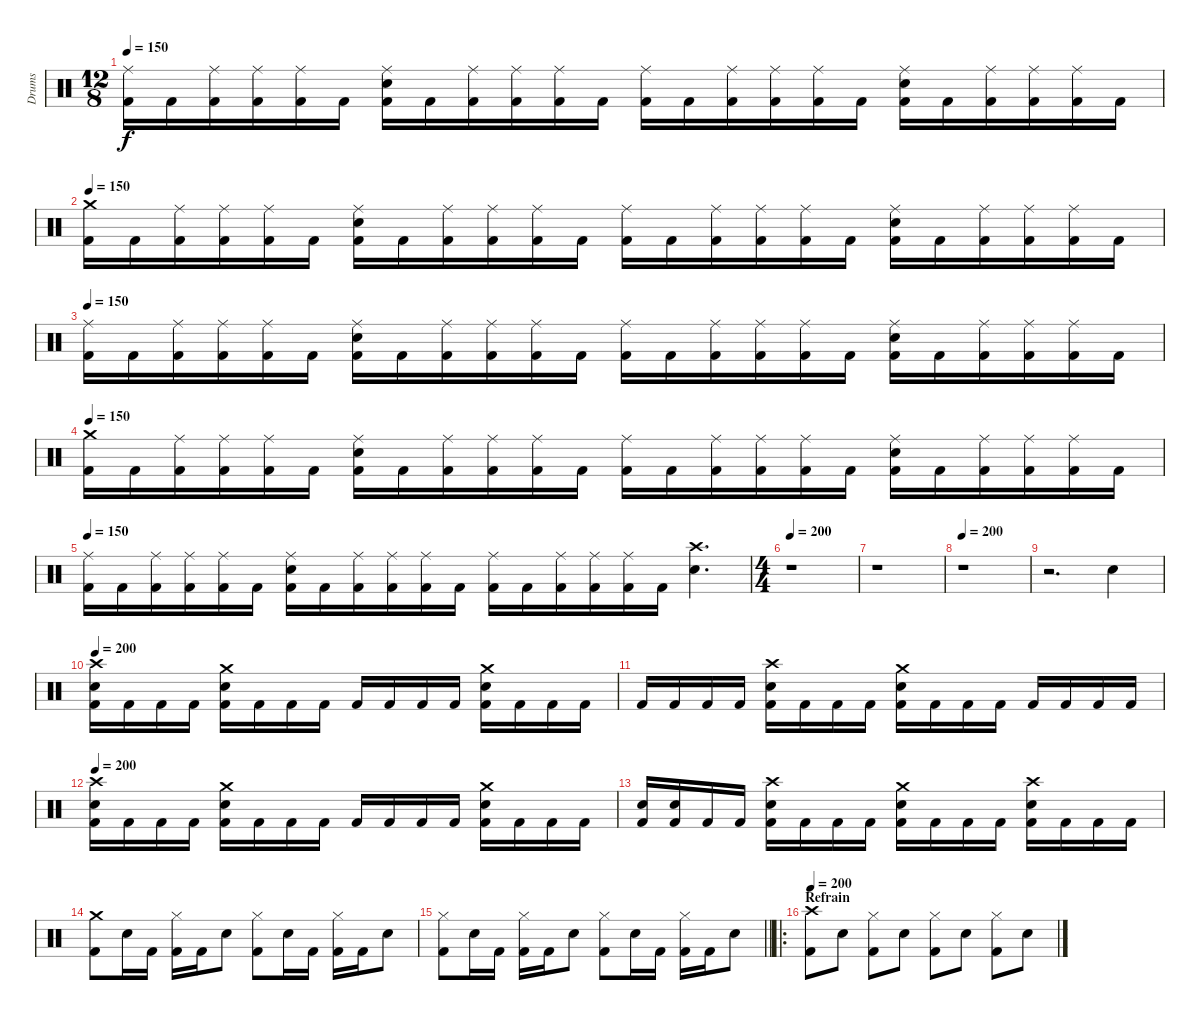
\track ("Drums" "Drums") {instrument percussion}
\staff {score}
\articulation defaults
\ts (12 8)
\tempo 150
\clef neutral
\ks c
("Ride (middle)" "Kick (hit) 2").16{dy f} "Kick (hit) 2".16 ("Ride (middle)" "Kick (hit) 2").16 ("Ride (middle)" "Kick (hit) 2").16 ("Ride (middle)" "Kick (hit) 2").16 "Kick (hit) 2".16 ("Ride (middle)" "Electric Snare (hit)" "Kick (hit) 2").16 "Kick (hit) 2".16 ("Ride (middle)" "Kick (hit) 2").16 ("Ride (middle)" "Kick (hit) 2").16 ("Ride (middle)" "Kick (hit) 2").16 "Kick (hit) 2".16 ("Ride (middle)" "Kick (hit) 2").16 "Kick (hit) 2".16 ("Ride (middle)" "Kick (hit) 2").16 ("Ride (middle)" "Kick (hit) 2").16 ("Ride (middle)" "Kick (hit) 2").16 "Kick (hit) 2".16 ("Ride (middle)" "Electric Snare (hit)" "Kick (hit) 2").16 "Kick (hit) 2".16 ("Ride (middle)" "Kick (hit) 2").16 ("Ride (middle)" "Kick (hit) 2").16 ("Ride (middle)" "Kick (hit) 2").16 "Kick (hit) 2".16 |
\tempo 150
("Crash medium (hit)" "Kick (hit) 2").16 "Kick (hit) 2".16 ("Ride (middle)" "Kick (hit) 2").16 ("Ride (middle)" "Kick (hit) 2").16 ("Ride (middle)" "Kick (hit) 2").16 "Kick (hit) 2".16 ("Ride (middle)" "Electric Snare (hit)" "Kick (hit) 2").16 "Kick (hit) 2".16 ("Ride (middle)" "Kick (hit) 2").16 ("Ride (middle)" "Kick (hit) 2").16 ("Ride (middle)" "Kick (hit) 2").16 "Kick (hit) 2".16 ("Ride (middle)" "Kick (hit) 2").16 "Kick (hit) 2".16 ("Ride (middle)" "Kick (hit) 2").16 ("Ride (middle)" "Kick (hit) 2").16 ("Ride (middle)" "Kick (hit) 2").16 "Kick (hit) 2".16 ("Ride (middle)" "Electric Snare (hit)" "Kick (hit) 2").16 "Kick (hit) 2".16 ("Ride (middle)" "Kick (hit) 2").16 ("Ride (middle)" "Kick (hit) 2").16 ("Ride (middle)" "Kick (hit) 2").16 "Kick (hit) 2".16 |
\tempo 150
("Ride (middle)" "Kick (hit) 2").16 "Kick (hit) 2".16 ("Ride (middle)" "Kick (hit) 2").16 ("Ride (middle)" "Kick (hit) 2").16 ("Ride (middle)" "Kick (hit) 2").16 "Kick (hit) 2".16 ("Ride (middle)" "Electric Snare (hit)" "Kick (hit) 2").16 "Kick (hit) 2".16 ("Ride (middle)" "Kick (hit) 2").16 ("Ride (middle)" "Kick (hit) 2").16 ("Ride (middle)" "Kick (hit) 2").16 "Kick (hit) 2".16 ("Ride (middle)" "Kick (hit) 2").16 "Kick (hit) 2".16 ("Ride (middle)" "Kick (hit) 2").16 ("Ride (middle)" "Kick (hit) 2").16 ("Ride (middle)" "Kick (hit) 2").16 "Kick (hit) 2".16 ("Ride (middle)" "Electric Snare (hit)" "Kick (hit) 2").16 "Kick (hit) 2".16 ("Ride (middle)" "Kick (hit) 2").16 ("Ride (middle)" "Kick (hit) 2").16 ("Ride (middle)" "Kick (hit) 2").16 "Kick (hit) 2".16 |
\tempo 150
("Crash medium (hit)" "Kick (hit) 2").16 "Kick (hit) 2".16 ("Ride (middle)" "Kick (hit) 2").16 ("Ride (middle)" "Kick (hit) 2").16 ("Ride (middle)" "Kick (hit) 2").16 "Kick (hit) 2".16 ("Ride (middle)" "Electric Snare (hit)" "Kick (hit) 2").16 "Kick (hit) 2".16 ("Ride (middle)" "Kick (hit) 2").16 ("Ride (middle)" "Kick (hit) 2").16 ("Ride (middle)" "Kick (hit) 2").16 "Kick (hit) 2".16 ("Ride (middle)" "Kick (hit) 2").16 "Kick (hit) 2".16 ("Ride (middle)" "Kick (hit) 2").16 ("Ride (middle)" "Kick (hit) 2").16 ("Ride (middle)" "Kick (hit) 2").16 "Kick (hit) 2".16 ("Ride (middle)" "Electric Snare (hit)" "Kick (hit) 2").16 "Kick (hit) 2".16 ("Ride (middle)" "Kick (hit) 2").16 ("Ride (middle)" "Kick (hit) 2").16 ("Ride (middle)" "Kick (hit) 2").16 "Kick (hit) 2".16 |
\tempo 150
("Ride (middle)" "Kick (hit) 2").16 "Kick (hit) 2".16 ("Ride (middle)" "Kick (hit) 2").16 ("Ride (middle)" "Kick (hit) 2").16 ("Ride (middle)" "Kick (hit) 2").16 "Kick (hit) 2".16 ("Ride (middle)" "Electric Snare (hit)" "Kick (hit) 2").16 "Kick (hit) 2".16 ("Ride (middle)" "Kick (hit) 2").16 ("Ride (middle)" "Kick (hit) 2").16 ("Ride (middle)" "Kick (hit) 2").16 "Kick (hit) 2".16 ("Ride (middle)" "Kick (hit) 2").16 "Kick (hit) 2".16 ("Ride (middle)" "Kick (hit) 2").16 ("Ride (middle)" "Kick (hit) 2").16 ("Ride (middle)" "Kick (hit) 2").16 "Kick (hit) 2".16 ("Crash high (hit)" "Electric Snare (hit)").4{d} |
\ts (4 4)
\tempo 200
r.1 |
r.1 |
\tempo 200
r.1 |
r.2{d} "Electric Snare (hit)".4 |
\tempo 200
("Crash high (hit)" "Electric Snare (hit)" "Kick (hit) 2").16 "Kick (hit) 2".16 "Kick (hit) 2".16 "Kick (hit) 2".16 ("Crash medium (hit)" "Electric Snare (hit)" "Kick (hit) 2").16 "Kick (hit) 2".16 "Kick (hit) 2".16 "Kick (hit) 2".16 "Kick (hit) 2".16 "Kick (hit) 2".16 "Kick (hit) 2".16 "Kick (hit) 2".16 ("Crash medium (hit)" "Electric Snare (hit)" "Kick (hit) 2").16 "Kick (hit) 2".16 "Kick (hit) 2".16 "Kick (hit) 2".16 |
"Kick (hit) 2".16 "Kick (hit) 2".16 "Kick (hit) 2".16 "Kick (hit) 2".16 ("Crash high (hit)" "Electric Snare (hit)" "Kick (hit) 2").16 "Kick (hit) 2".16 "Kick (hit) 2".16 "Kick (hit) 2".16 ("Crash medium (hit)" "Electric Snare (hit)" "Kick (hit) 2").16 "Kick (hit) 2".16 "Kick (hit) 2".16 "Kick (hit) 2".16 "Kick (hit) 2".16 "Kick (hit) 2".16 "Kick (hit) 2".16 "Kick (hit) 2".16 |
\tempo 200
("Crash high (hit)" "Electric Snare (hit)" "Kick (hit) 2").16 "Kick (hit) 2".16 "Kick (hit) 2".16 "Kick (hit) 2".16 ("Crash medium (hit)" "Electric Snare (hit)" "Kick (hit) 2").16 "Kick (hit) 2".16 "Kick (hit) 2".16 "Kick (hit) 2".16 "Kick (hit) 2".16 "Kick (hit) 2".16 "Kick (hit) 2".16 "Kick (hit) 2".16 ("Crash medium (hit)" "Electric Snare (hit)" "Kick (hit) 2").16 "Kick (hit) 2".16 "Kick (hit) 2".16 "Kick (hit) 2".16 |
("Electric Snare (hit)" "Kick (hit) 2").16 ("Electric Snare (hit)" "Kick (hit) 2").16 "Kick (hit) 2".16 "Kick (hit) 2".16 ("Crash high (hit)" "Electric Snare (hit)" "Kick (hit) 2").16 "Kick (hit) 2".16 "Kick (hit) 2".16 "Kick (hit) 2".16 ("Crash medium (hit)" "Electric Snare (hit)" "Kick (hit) 2").16 "Kick (hit) 2".16 "Kick (hit) 2".16 "Kick (hit) 2".16 ("Crash high (hit)" "Electric Snare (hit)" "Kick (hit) 2").16 "Kick (hit) 2".16 "Kick (hit) 2".16 "Kick (hit) 2".16 |
("Crash medium (hit)" "Kick (hit) 2").8 "Electric Snare (hit)".16 "Kick (hit) 2".16 ("Hi-Hat (closed)" "Kick (hit) 2").16 "Kick (hit) 2".16 "Electric Snare (hit)".8 ("Hi-Hat (closed)" "Kick (hit) 2").8 "Electric Snare (hit)".16 "Kick (hit) 2".16 ("Hi-Hat (closed)" "Kick (hit) 2").16 "Kick (hit) 2".16 "Electric Snare (hit)".8 |
\barLineRight lightlight
("Hi-Hat (closed)" "Kick (hit) 2").8 "Electric Snare (hit)".16 "Kick (hit) 2".16 ("Hi-Hat (closed)" "Kick (hit) 2").16 "Kick (hit) 2".16 "Electric Snare (hit)".8 ("Hi-Hat (closed)" "Kick (hit) 2").8 "Electric Snare (hit)".16 "Kick (hit) 2".16 ("Hi-Hat (closed)" "Kick (hit) 2").16 "Kick (hit) 2".16 "Electric Snare (hit)".8 |
\ro
\section ("" "Refrain")
\tempo 200
("Crash high (hit)" "Kick (hit) 2").8 "Electric Snare (hit)".8 ("Hi-Hat (closed)" "Kick (hit) 2").8 "Electric Snare (hit)".8 ("Hi-Hat (closed)" "Kick (hit) 2").8 "Electric Snare (hit)".8 ("Hi-Hat (closed)" "Kick (hit) 2").8 "Electric Snare (hit)".8
